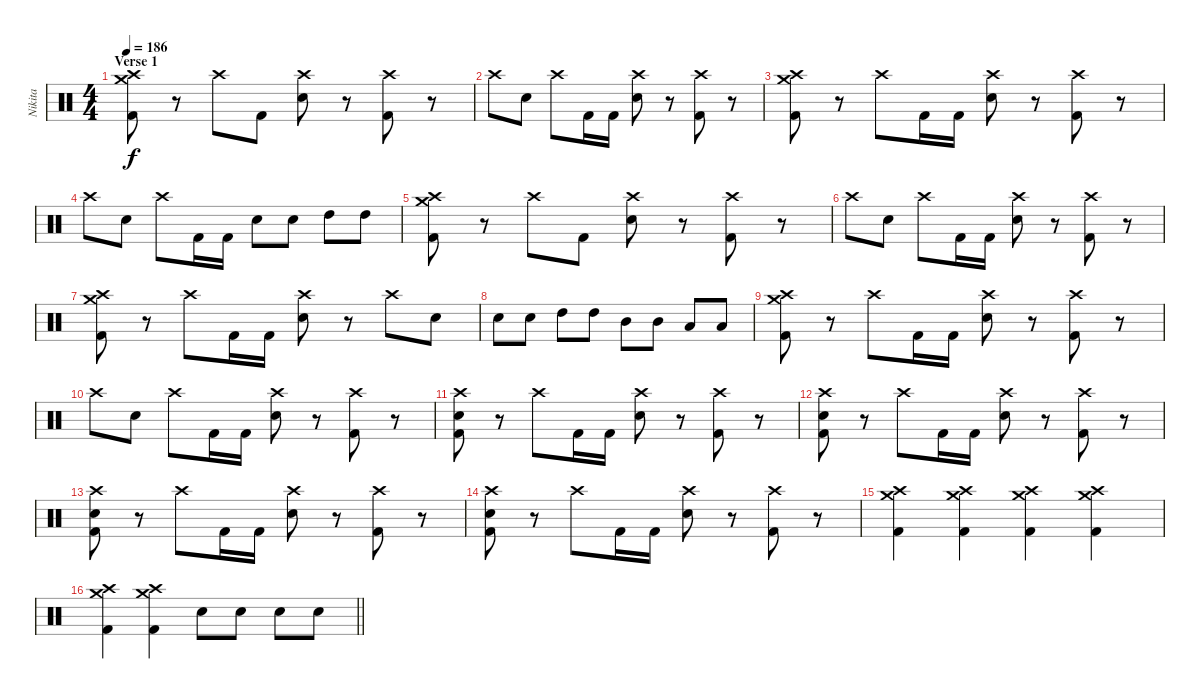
\track ("Nikita" "Nikita") {instrument percussion}
\staff {score}
\articulation defaults
\ts (4 4)
\section ("" "Verse 1")
\tempo 186
\clef neutral
\ks c
("Crash high (hit)" "Crash medium (hit)" "Kick (hit) 2").8{dy f} r.8 "Crash high (hit)".8 "Kick (hit) 2".8 ("Crash high (hit)" "Electric Snare (hit)").8 r.8 ("Crash high (hit)" "Kick (hit) 2").8 r.8 |
"Crash high (hit)".8 "Electric Snare (hit)".8 "Crash high (hit)".8 "Kick (hit) 2".16 "Kick (hit) 2".16 ("Crash high (hit)" "Electric Snare (hit)").8 r.8 ("Crash high (hit)" "Kick (hit) 2").8 r.8 |
("Crash high (hit)" "Crash medium (hit)" "Kick (hit) 2").8 r.8 "Crash high (hit)".8 "Kick (hit) 2".16 "Kick (hit) 2".16 ("Crash high (hit)" "Electric Snare (hit)").8 r.8 ("Crash high (hit)" "Kick (hit) 2").8 r.8 |
"Crash high (hit)".8 "Electric Snare (hit)".8 "Crash high (hit)".8 "Kick (hit) 2".16 "Kick (hit) 2".16 "Electric Snare (hit)".8 "Electric Snare (hit)".8 "High Tom (hit)".8 "High Tom (hit)".8 |
("Crash high (hit)" "Crash medium (hit)" "Kick (hit) 2").8 r.8 "Crash high (hit)".8 "Kick (hit) 2".8 ("Crash high (hit)" "Electric Snare (hit)").8 r.8 ("Crash high (hit)" "Kick (hit) 2").8 r.8 |
"Crash high (hit)".8 "Electric Snare (hit)".8 "Crash high (hit)".8 "Kick (hit) 2".16 "Kick (hit) 2".16 ("Crash high (hit)" "Electric Snare (hit)").8 r.8 ("Crash high (hit)" "Kick (hit) 2").8 r.8 |
("Crash high (hit)" "Crash medium (hit)" "Kick (hit) 2").8 r.8 "Crash high (hit)".8 "Kick (hit) 2".16 "Kick (hit) 2".16 ("Crash high (hit)" "Electric Snare (hit)").8 r.8 "Crash high (hit)".8 "Electric Snare (hit)".8 |
"Electric Snare (hit)".8 "Electric Snare (hit)".8 "High Tom (hit)".8 "High Tom (hit)".8 "Mid Tom (hit)".8 "Mid Tom (hit)".8 "Low Tom (hit)".8 "Low Tom (hit)".8 |
("Crash high (hit)" "Crash medium (hit)" "Kick (hit) 2").8 r.8 "Crash high (hit)".8 "Kick (hit) 2".16 "Kick (hit) 2".16 ("Crash high (hit)" "Electric Snare (hit)").8 r.8 ("Crash high (hit)" "Kick (hit) 2").8 r.8 |
"Crash high (hit)".8 "Electric Snare (hit)".8 "Crash high (hit)".8 "Kick (hit) 2".16 "Kick (hit) 2".16 ("Crash high (hit)" "Electric Snare (hit)").8 r.8 ("Crash high (hit)" "Kick (hit) 2").8 r.8 |
("Crash high (hit)" "Electric Snare (hit)" "Kick (hit) 2").8 r.8 "Crash high (hit)".8 "Kick (hit) 2".16 "Kick (hit) 2".16 ("Crash high (hit)" "Electric Snare (hit)").8 r.8 ("Crash high (hit)" "Kick (hit) 2").8 r.8 |
("Crash high (hit)" "Electric Snare (hit)" "Kick (hit) 2").8 r.8 "Crash high (hit)".8 "Kick (hit) 2".16 "Kick (hit) 2".16 ("Crash high (hit)" "Electric Snare (hit)").8 r.8 ("Crash high (hit)" "Kick (hit) 2").8 r.8 |
("Crash high (hit)" "Electric Snare (hit)" "Kick (hit) 2").8 r.8 "Crash high (hit)".8 "Kick (hit) 2".16 "Kick (hit) 2".16 ("Crash high (hit)" "Electric Snare (hit)").8 r.8 ("Crash high (hit)" "Kick (hit) 2").8 r.8 |
("Crash high (hit)" "Electric Snare (hit)" "Kick (hit) 2").8 r.8 "Crash high (hit)".8 "Kick (hit) 2".16 "Kick (hit) 2".16 ("Crash high (hit)" "Electric Snare (hit)").8 r.8 ("Crash high (hit)" "Kick (hit) 2").8 r.8 |
("Crash high (hit)" "Crash medium (hit)" "Kick (hit) 2").4 ("Crash high (hit)" "Crash medium (hit)" "Kick (hit) 2").4 ("Crash high (hit)" "Crash medium (hit)" "Kick (hit) 2").4 ("Crash high (hit)" "Crash medium (hit)" "Kick (hit) 2").4 |
\barLineRight lightlight
("Crash high (hit)" "Crash medium (hit)" "Kick (hit) 2").4 ("Crash high (hit)" "Crash medium (hit)" "Kick (hit) 2").4 "Electric Snare (hit)".8 "Electric Snare (hit)".8 "Electric Snare (hit)".8 "Electric Snare (hit)".8
